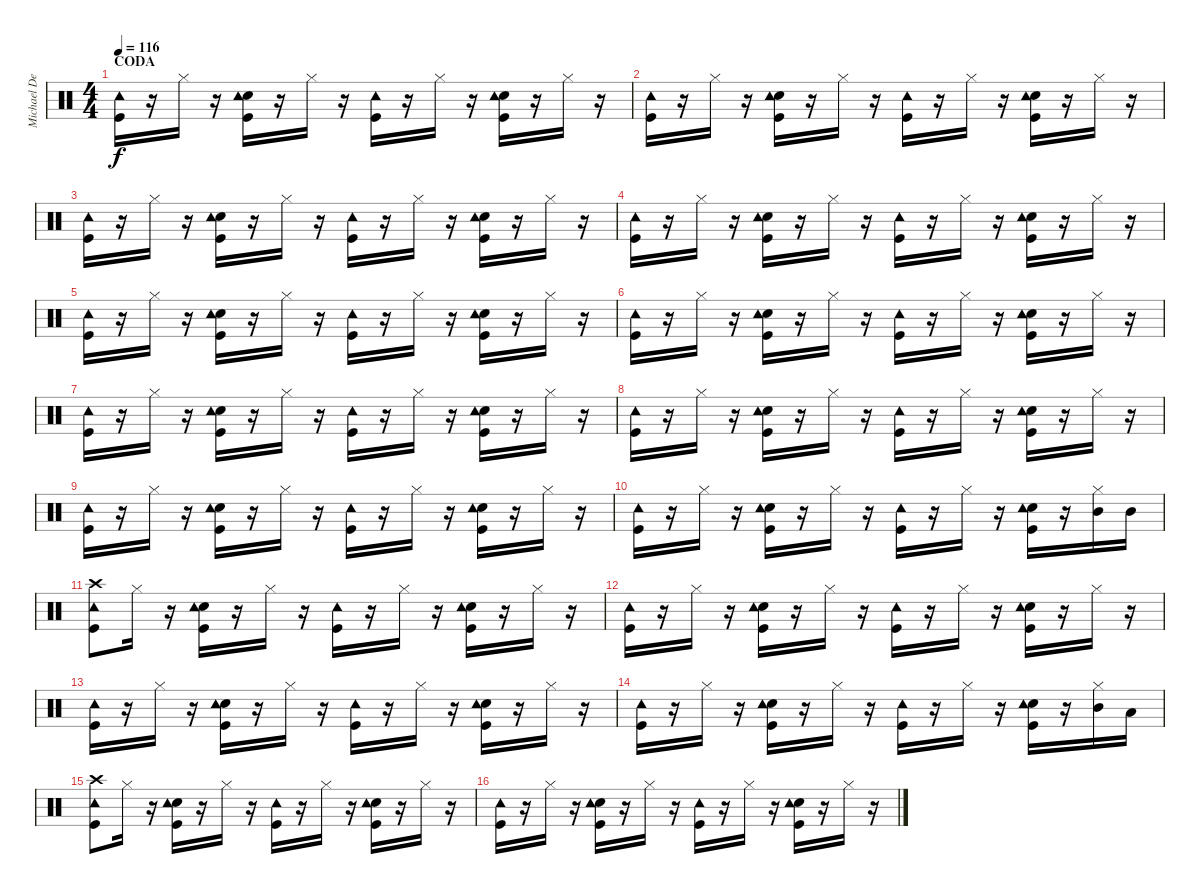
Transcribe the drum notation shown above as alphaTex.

\track ("Michael DeRosier" "Michael De") {instrument percussion}
\staff {score}
\articulation defaults
\ts (4 4)
\section ("" "CODA")
\tempo 116
\clef neutral
\ks c
("Kick (hit)" "Tambourine (hit)").16{dy f} r.16 "Hi-Hat (closed)".16 r.16 ("Kick (hit)" "Electric Snare (hit)" "Tambourine (hit)").16 r.16 "Hi-Hat (closed)".16 r.16 ("Kick (hit)" "Tambourine (hit)").16 r.16 "Hi-Hat (closed)".16 r.16 ("Kick (hit)" "Electric Snare (hit)" "Tambourine (hit)").16 r.16 "Hi-Hat (closed)".16 r.16 |
("Kick (hit)" "Tambourine (hit)").16 r.16 "Hi-Hat (closed)".16 r.16 ("Kick (hit)" "Electric Snare (hit)" "Tambourine (hit)").16 r.16 "Hi-Hat (closed)".16 r.16 ("Kick (hit)" "Tambourine (hit)").16 r.16 "Hi-Hat (closed)".16 r.16 ("Kick (hit)" "Electric Snare (hit)" "Tambourine (hit)").16 r.16 "Hi-Hat (closed)".16 r.16 |
("Kick (hit)" "Tambourine (hit)").16 r.16 "Hi-Hat (closed)".16 r.16 ("Kick (hit)" "Electric Snare (hit)" "Tambourine (hit)").16 r.16 "Hi-Hat (closed)".16 r.16 ("Kick (hit)" "Tambourine (hit)").16 r.16 "Hi-Hat (closed)".16 r.16 ("Kick (hit)" "Electric Snare (hit)" "Tambourine (hit)").16 r.16 "Hi-Hat (closed)".16 r.16 |
("Kick (hit)" "Tambourine (hit)").16 r.16 "Hi-Hat (closed)".16 r.16 ("Kick (hit)" "Electric Snare (hit)" "Tambourine (hit)").16 r.16 "Hi-Hat (closed)".16 r.16 ("Kick (hit)" "Tambourine (hit)").16 r.16 "Hi-Hat (closed)".16 r.16 ("Kick (hit)" "Electric Snare (hit)" "Tambourine (hit)").16 r.16 "Hi-Hat (closed)".16 r.16 |
("Kick (hit)" "Tambourine (hit)").16 r.16 "Hi-Hat (closed)".16 r.16 ("Kick (hit)" "Electric Snare (hit)" "Tambourine (hit)").16 r.16 "Hi-Hat (closed)".16 r.16 ("Kick (hit)" "Tambourine (hit)").16 r.16 "Hi-Hat (closed)".16 r.16 ("Kick (hit)" "Electric Snare (hit)" "Tambourine (hit)").16 r.16 "Hi-Hat (closed)".16 r.16 |
("Kick (hit)" "Tambourine (hit)").16 r.16 "Hi-Hat (closed)".16 r.16 ("Kick (hit)" "Electric Snare (hit)" "Tambourine (hit)").16 r.16 "Hi-Hat (closed)".16 r.16 ("Kick (hit)" "Tambourine (hit)").16 r.16 "Hi-Hat (closed)".16 r.16 ("Kick (hit)" "Electric Snare (hit)" "Tambourine (hit)").16 r.16 "Hi-Hat (closed)".16 r.16 |
("Kick (hit)" "Tambourine (hit)").16 r.16 "Hi-Hat (closed)".16 r.16 ("Kick (hit)" "Electric Snare (hit)" "Tambourine (hit)").16 r.16 "Hi-Hat (closed)".16 r.16 ("Kick (hit)" "Tambourine (hit)").16 r.16 "Hi-Hat (closed)".16 r.16 ("Kick (hit)" "Electric Snare (hit)" "Tambourine (hit)").16 r.16 "Hi-Hat (closed)".16 r.16 |
("Kick (hit)" "Tambourine (hit)").16 r.16 "Hi-Hat (closed)".16 r.16 ("Kick (hit)" "Electric Snare (hit)" "Tambourine (hit)").16 r.16 "Hi-Hat (closed)".16 r.16 ("Kick (hit)" "Tambourine (hit)").16 r.16 "Hi-Hat (closed)".16 r.16 ("Kick (hit)" "Electric Snare (hit)" "Tambourine (hit)").16 r.16 "Hi-Hat (closed)".16 r.16 |
("Kick (hit)" "Tambourine (hit)").16 r.16 "Hi-Hat (closed)".16 r.16 ("Kick (hit)" "Electric Snare (hit)" "Tambourine (hit)").16 r.16 "Hi-Hat (closed)".16 r.16 ("Kick (hit)" "Tambourine (hit)").16 r.16 "Hi-Hat (closed)".16 r.16 ("Kick (hit)" "Electric Snare (hit)" "Tambourine (hit)").16 r.16 "Hi-Hat (closed)".16 r.16 |
("Kick (hit)" "Tambourine (hit)").16 r.16 "Hi-Hat (closed)".16 r.16 ("Kick (hit)" "Electric Snare (hit)" "Tambourine (hit)").16 r.16 "Hi-Hat (closed)".16 r.16 ("Kick (hit)" "Tambourine (hit)").16 r.16 "Hi-Hat (closed)".16 r.16 ("Kick (hit)" "Electric Snare (hit)" "Tambourine (hit)").16 r.16 ("Mid Tom (hit)" "Hi-Hat (closed)").16 "Mid Tom (hit)".16 |
("Kick (hit)" "Crash high (hit)" "Tambourine (hit)").8 "Hi-Hat (closed)".16 r.16 ("Kick (hit)" "Electric Snare (hit)" "Tambourine (hit)").16 r.16 "Hi-Hat (closed)".16 r.16 ("Kick (hit)" "Tambourine (hit)").16 r.16 "Hi-Hat (closed)".16 r.16 ("Kick (hit)" "Electric Snare (hit)" "Tambourine (hit)").16 r.16 "Hi-Hat (closed)".16 r.16 |
("Kick (hit)" "Tambourine (hit)").16 r.16 "Hi-Hat (closed)".16 r.16 ("Kick (hit)" "Electric Snare (hit)" "Tambourine (hit)").16 r.16 "Hi-Hat (closed)".16 r.16 ("Kick (hit)" "Tambourine (hit)").16 r.16 "Hi-Hat (closed)".16 r.16 ("Kick (hit)" "Electric Snare (hit)" "Tambourine (hit)").16 r.16 "Hi-Hat (closed)".16 r.16 |
("Kick (hit)" "Tambourine (hit)").16 r.16 "Hi-Hat (closed)".16 r.16 ("Kick (hit)" "Electric Snare (hit)" "Tambourine (hit)").16 r.16 "Hi-Hat (closed)".16 r.16 ("Kick (hit)" "Tambourine (hit)").16 r.16 "Hi-Hat (closed)".16 r.16 ("Kick (hit)" "Electric Snare (hit)" "Tambourine (hit)").16 r.16 "Hi-Hat (closed)".16 r.16 |
("Kick (hit)" "Tambourine (hit)").16 r.16 "Hi-Hat (closed)".16 r.16 ("Kick (hit)" "Electric Snare (hit)" "Tambourine (hit)").16 r.16 "Hi-Hat (closed)".16 r.16 ("Kick (hit)" "Tambourine (hit)").16 r.16 "Hi-Hat (closed)".16 r.16 ("Kick (hit)" "Electric Snare (hit)" "Tambourine (hit)").16 r.16 ("Mid Tom (hit)" "Hi-Hat (closed)").16 "Low Tom (hit)".16 |
("Kick (hit)" "Crash high (hit)" "Tambourine (hit)").8 "Hi-Hat (closed)".16 r.16 ("Kick (hit)" "Electric Snare (hit)" "Tambourine (hit)").16 r.16 "Hi-Hat (closed)".16 r.16 ("Kick (hit)" "Tambourine (hit)").16 r.16 "Hi-Hat (closed)".16 r.16 ("Kick (hit)" "Electric Snare (hit)" "Tambourine (hit)").16 r.16 "Hi-Hat (closed)".16 r.16 |
("Kick (hit)" "Tambourine (hit)").16 r.16 "Hi-Hat (closed)".16 r.16 ("Kick (hit)" "Electric Snare (hit)" "Tambourine (hit)").16 r.16 "Hi-Hat (closed)".16 r.16 ("Kick (hit)" "Tambourine (hit)").16 r.16 "Hi-Hat (closed)".16 r.16 ("Kick (hit)" "Electric Snare (hit)" "Tambourine (hit)").16 r.16 "Hi-Hat (closed)".16 r.16
